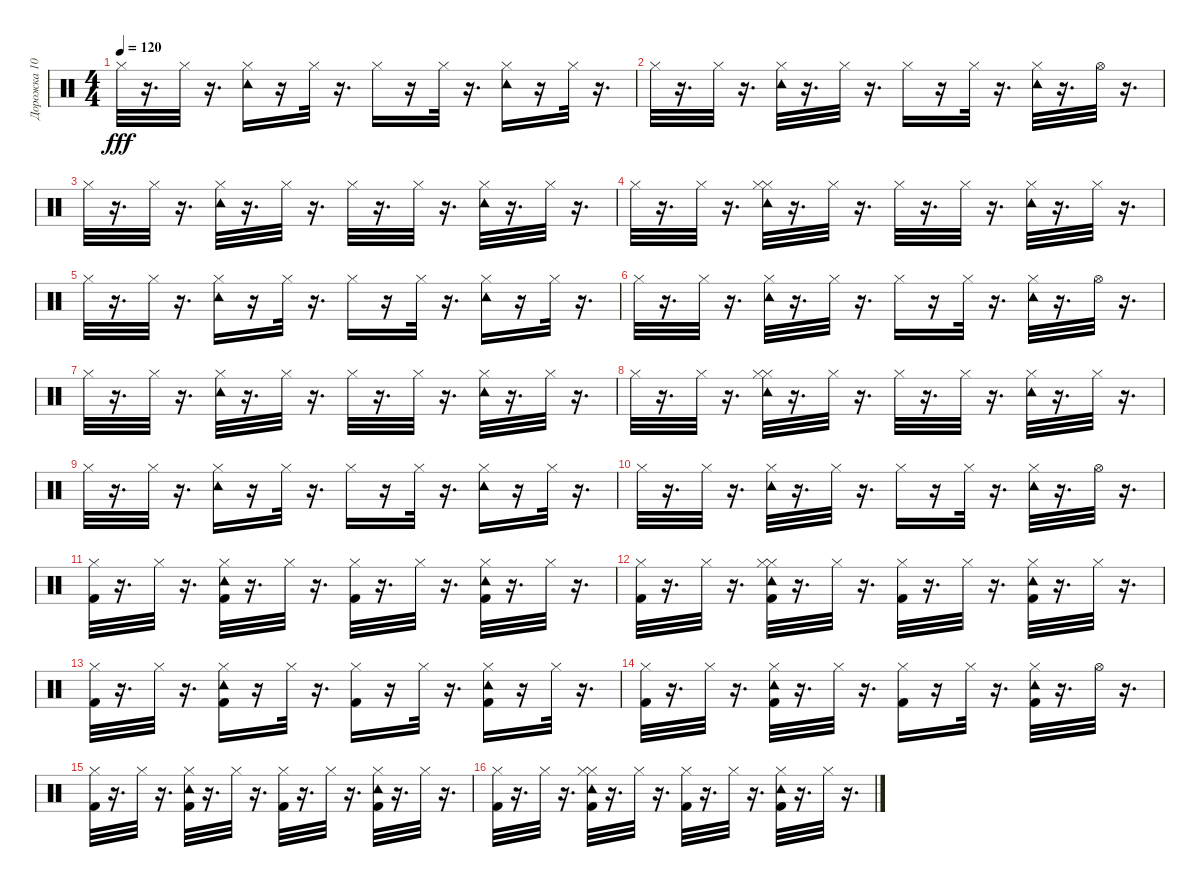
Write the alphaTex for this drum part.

\track ("Дорожка 10" "Дорожка 10") {instrument percussion}
\staff {score}
\articulation defaults
\ts (4 4)
\tempo 120
\clef neutral
\ks c "Hi-Hat (closed)".32{dy fff}
r.16{d} "Hi-Hat (closed)".32 r.16{d} ("Tambourine (hit)" "Hi-Hat (closed)").16 r.16 "Hi-Hat (closed)".32 r.16{d} "Hi-Hat (closed)".16 r.16 "Hi-Hat (closed)".32 r.16{d} ("Hi-Hat (closed)" "Tambourine (hit)").16 r.16 "Hi-Hat (closed)".32 r.16{d} |
"Hi-Hat (closed)".32 r.16{d} "Hi-Hat (closed)".32 r.16{d} ("Tambourine (hit)" "Hi-Hat (closed)").32 r.16{d} "Hi-Hat (closed)".32 r.16{d} "Hi-Hat (closed)".16 r.16 "Hi-Hat (closed)".32 r.16{d} ("Tambourine (hit)" "Hi-Hat (closed)").32 r.16{d} "Hi-Hat (open)".32 r.16{d} |
"Hi-Hat (closed)".32 r.16{d} "Hi-Hat (closed)".32 r.16{d} ("Tambourine (hit)" "Hi-Hat (closed)").32 r.16{d} "Hi-Hat (closed)".32 r.16{d} "Hi-Hat (closed)".32 r.16{d} "Hi-Hat (closed)".32 r.16{d} ("Tambourine (hit)" "Hi-Hat (closed)").32 r.16{d} "Hi-Hat (closed)".32 r.16{d} |
"Hi-Hat (closed)".32 r.16{d} "Hi-Hat (closed)".32 r.16{d} ("Tambourine (hit)" "Hi-Hat (closed)" "Hi-Hat (closed)").32 r.16{d} "Hi-Hat (closed)".32 r.16{d} "Hi-Hat (closed)".32 r.16{d} "Hi-Hat (closed)".32 r.16{d} ("Hi-Hat (closed)" "Tambourine (hit)").32 r.16{d} "Hi-Hat (closed)".32 r.16{d} |
"Hi-Hat (closed)".32 r.16{d} "Hi-Hat (closed)".32 r.16{d} ("Tambourine (hit)" "Hi-Hat (closed)").16 r.16 "Hi-Hat (closed)".32 r.16{d} "Hi-Hat (closed)".16 r.16 "Hi-Hat (closed)".32 r.16{d} ("Hi-Hat (closed)" "Tambourine (hit)").16 r.16 "Hi-Hat (closed)".32 r.16{d} |
"Hi-Hat (closed)".32 r.16{d} "Hi-Hat (closed)".32 r.16{d} ("Tambourine (hit)" "Hi-Hat (closed)").32 r.16{d} "Hi-Hat (closed)".32 r.16{d} "Hi-Hat (closed)".16 r.16 "Hi-Hat (closed)".32 r.16{d} ("Tambourine (hit)" "Hi-Hat (closed)").32 r.16{d} "Hi-Hat (open)".32 r.16{d} |
"Hi-Hat (closed)".32 r.16{d} "Hi-Hat (closed)".32 r.16{d} ("Tambourine (hit)" "Hi-Hat (closed)").32 r.16{d} "Hi-Hat (closed)".32 r.16{d} "Hi-Hat (closed)".32 r.16{d} "Hi-Hat (closed)".32 r.16{d} ("Tambourine (hit)" "Hi-Hat (closed)").32 r.16{d} "Hi-Hat (closed)".32 r.16{d} |
"Hi-Hat (closed)".32 r.16{d} "Hi-Hat (closed)".32 r.16{d} ("Tambourine (hit)" "Hi-Hat (closed)" "Hi-Hat (closed)").32 r.16{d} "Hi-Hat (closed)".32 r.16{d} "Hi-Hat (closed)".32 r.16{d} "Hi-Hat (closed)".32 r.16{d} ("Hi-Hat (closed)" "Tambourine (hit)").32 r.16{d} "Hi-Hat (closed)".32 r.16{d} |
"Hi-Hat (closed)".32 r.16{d} "Hi-Hat (closed)".32 r.16{d} ("Tambourine (hit)" "Hi-Hat (closed)").16 r.16 "Hi-Hat (closed)".32 r.16{d} "Hi-Hat (closed)".16 r.16 "Hi-Hat (closed)".32 r.16{d} ("Hi-Hat (closed)" "Tambourine (hit)").16 r.16 "Hi-Hat (closed)".32 r.16{d} |
"Hi-Hat (closed)".32 r.16{d} "Hi-Hat (closed)".32 r.16{d} ("Tambourine (hit)" "Hi-Hat (closed)").32 r.16{d} "Hi-Hat (closed)".32 r.16{d} "Hi-Hat (closed)".16 r.16 "Hi-Hat (closed)".32 r.16{d} ("Tambourine (hit)" "Hi-Hat (closed)").32 r.16{d} "Hi-Hat (open)".32 r.16{d} |
("Kick (hit) 2" "Hi-Hat (closed)").32 r.16{d} "Hi-Hat (closed)".32 r.16{d} ("Tambourine (hit)" "Kick (hit) 2" "Hi-Hat (closed)").32 r.16{d} "Hi-Hat (closed)".32 r.16{d} ("Hi-Hat (closed)" "Kick (hit) 2").32 r.16{d} "Hi-Hat (closed)".32 r.16{d} ("Tambourine (hit)" "Hi-Hat (closed)" "Kick (hit) 2").32 r.16{d} "Hi-Hat (closed)".32 r.16{d} |
("Kick (hit) 2" "Hi-Hat (closed)").32 r.16{d} "Hi-Hat (closed)".32 r.16{d} ("Tambourine (hit)" "Kick (hit) 2" "Hi-Hat (closed)" "Hi-Hat (closed)").32 r.16{d} "Hi-Hat (closed)".32 r.16{d} ("Hi-Hat (closed)" "Kick (hit) 2").32 r.16{d} "Hi-Hat (closed)".32 r.16{d} ("Kick (hit) 2" "Hi-Hat (closed)" "Tambourine (hit)").32 r.16{d} "Hi-Hat (closed)".32 r.16{d} |
("Kick (hit) 2" "Hi-Hat (closed)").32 r.16{d} "Hi-Hat (closed)".32 r.16{d} ("Tambourine (hit)" "Kick (hit) 2" "Hi-Hat (closed)").16 r.16 "Hi-Hat (closed)".32 r.16{d} ("Kick (hit) 2" "Hi-Hat (closed)").16 r.16 "Hi-Hat (closed)".32 r.16{d} ("Kick (hit) 2" "Hi-Hat (closed)" "Tambourine (hit)").16 r.16 "Hi-Hat (closed)".32 r.16{d} |
("Kick (hit) 2" "Hi-Hat (closed)").32 r.16{d} "Hi-Hat (closed)".32 r.16{d} ("Tambourine (hit)" "Kick (hit) 2" "Hi-Hat (closed)").32 r.16{d} "Hi-Hat (closed)".32 r.16{d} ("Kick (hit) 2" "Hi-Hat (closed)").16 r.16 "Hi-Hat (closed)".32 r.16{d} ("Tambourine (hit)" "Kick (hit) 2" "Hi-Hat (closed)").32 r.16{d} "Hi-Hat (open)".32 r.16{d} |
("Kick (hit) 2" "Hi-Hat (closed)").32 r.16{d} "Hi-Hat (closed)".32 r.16{d} ("Tambourine (hit)" "Kick (hit) 2" "Hi-Hat (closed)").32 r.16{d} "Hi-Hat (closed)".32 r.16{d} ("Hi-Hat (closed)" "Kick (hit) 2").32 r.16{d} "Hi-Hat (closed)".32 r.16{d} ("Tambourine (hit)" "Hi-Hat (closed)" "Kick (hit) 2").32 r.16{d} "Hi-Hat (closed)".32 r.16{d} |
("Kick (hit) 2" "Hi-Hat (closed)").32 r.16{d} "Hi-Hat (closed)".32 r.16{d} ("Tambourine (hit)" "Kick (hit) 2" "Hi-Hat (closed)" "Hi-Hat (closed)").32 r.16{d} "Hi-Hat (closed)".32 r.16{d} ("Hi-Hat (closed)" "Kick (hit) 2").32 r.16{d} "Hi-Hat (closed)".32 r.16{d} ("Kick (hit) 2" "Hi-Hat (closed)" "Tambourine (hit)").32 r.16{d} "Hi-Hat (closed)".32 r.16{d}
